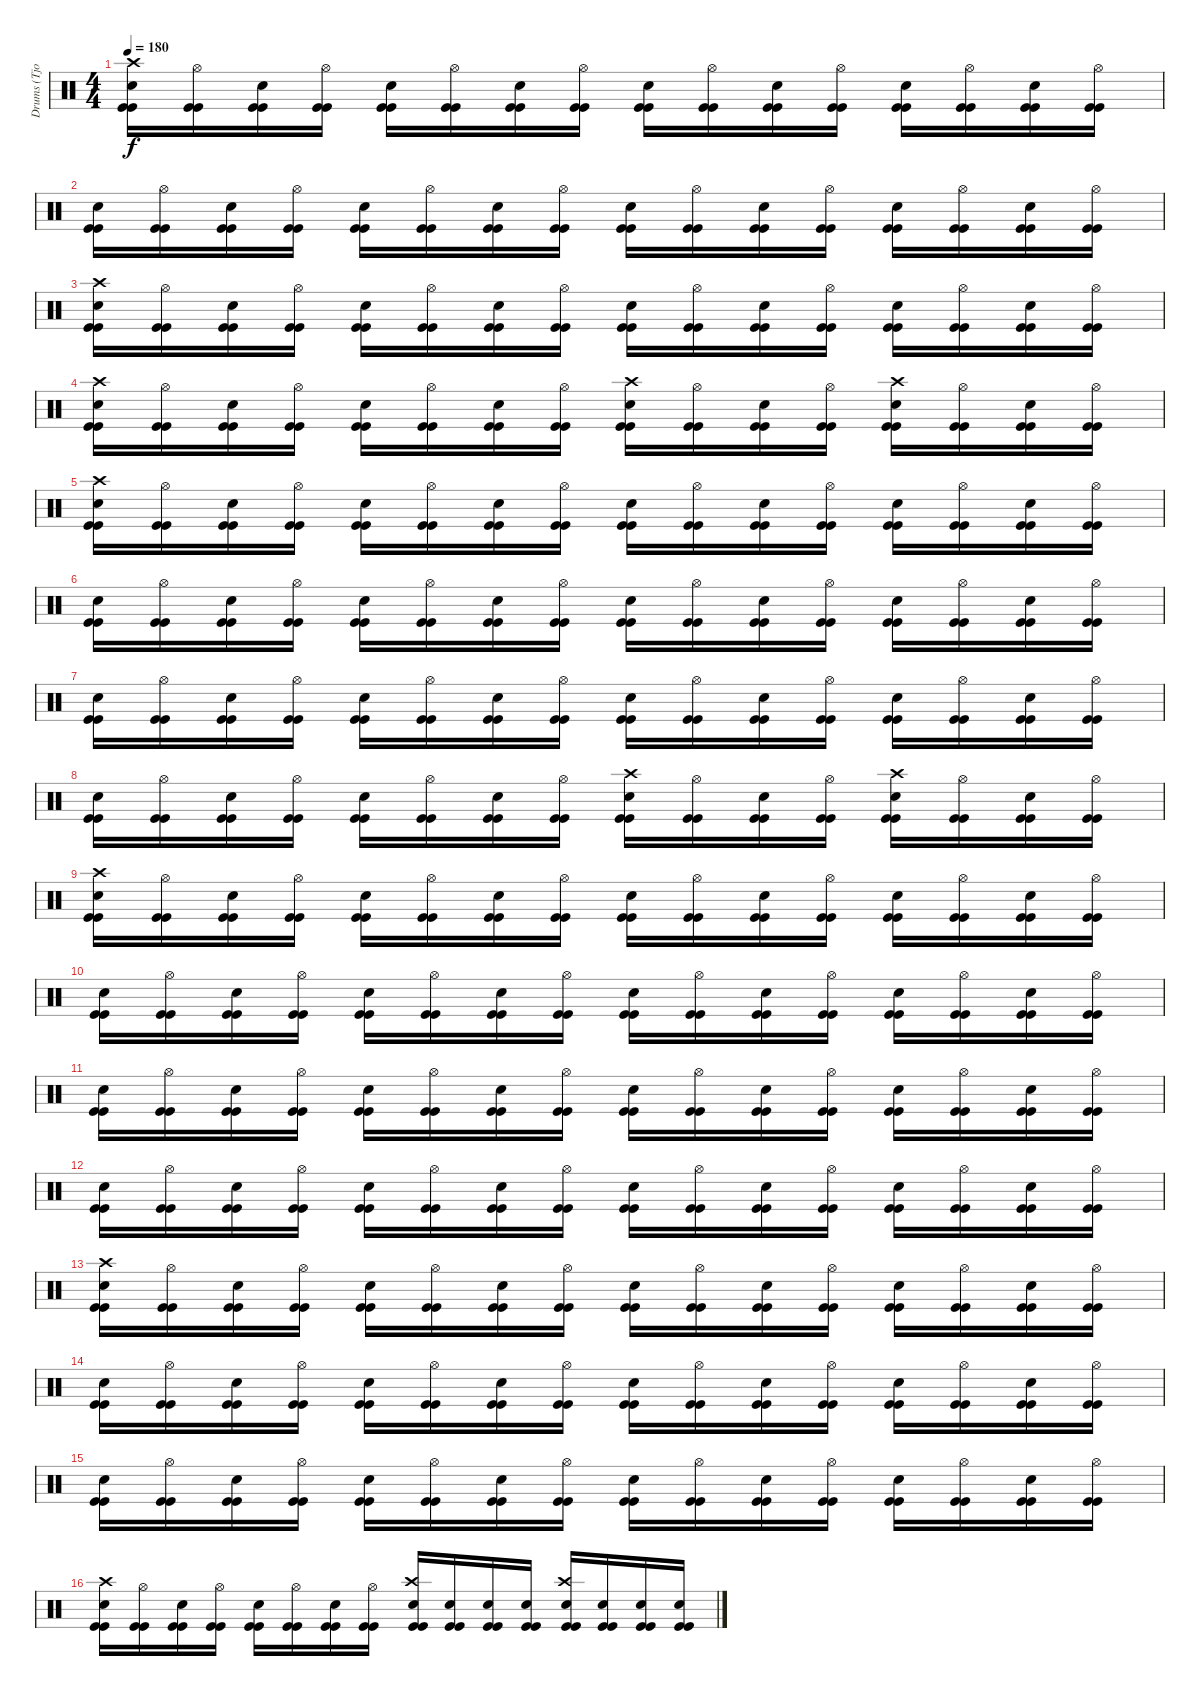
\track ("Drums (Tjodalv)" "Drums (Tjo") {instrument percussion}
\staff {score}
\articulation defaults
\ts (4 4)
\tempo 180
\clef neutral
\ks c
("Snare (hit) 2" "Crash high (hit)" "Kick (hit)" "Kick (hit)").16{dy f} ("Hi-Hat (open)" "Kick (hit)" "Kick (hit)").16 ("Snare (hit) 2" "Kick (hit)" "Kick (hit)").16 ("Hi-Hat (open)" "Kick (hit)" "Kick (hit)").16 ("Snare (hit) 2" "Kick (hit)" "Kick (hit)").16 ("Hi-Hat (open)" "Kick (hit)" "Kick (hit)").16 ("Snare (hit) 2" "Kick (hit)" "Kick (hit)").16 ("Hi-Hat (open)" "Kick (hit)" "Kick (hit)").16 ("Snare (hit) 2" "Kick (hit)" "Kick (hit)").16 ("Hi-Hat (open)" "Kick (hit)" "Kick (hit)").16 ("Snare (hit) 2" "Kick (hit)" "Kick (hit)").16 ("Hi-Hat (open)" "Kick (hit)" "Kick (hit)").16 ("Snare (hit) 2" "Kick (hit)" "Kick (hit)").16 ("Hi-Hat (open)" "Kick (hit)" "Kick (hit)").16 ("Snare (hit) 2" "Kick (hit)" "Kick (hit)").16 ("Hi-Hat (open)" "Kick (hit)" "Kick (hit)").16 |
("Snare (hit) 2" "Kick (hit)" "Kick (hit)").16 ("Hi-Hat (open)" "Kick (hit)" "Kick (hit)").16 ("Snare (hit) 2" "Kick (hit)" "Kick (hit)").16 ("Hi-Hat (open)" "Kick (hit)" "Kick (hit)").16 ("Snare (hit) 2" "Kick (hit)" "Kick (hit)").16 ("Hi-Hat (open)" "Kick (hit)" "Kick (hit)").16 ("Snare (hit) 2" "Kick (hit)" "Kick (hit)").16 ("Hi-Hat (open)" "Kick (hit)" "Kick (hit)").16 ("Snare (hit) 2" "Kick (hit)" "Kick (hit)").16 ("Hi-Hat (open)" "Kick (hit)" "Kick (hit)").16 ("Snare (hit) 2" "Kick (hit)" "Kick (hit)").16 ("Hi-Hat (open)" "Kick (hit)" "Kick (hit)").16 ("Snare (hit) 2" "Kick (hit)" "Kick (hit)").16 ("Hi-Hat (open)" "Kick (hit)" "Kick (hit)").16 ("Snare (hit) 2" "Kick (hit)" "Kick (hit)").16 ("Hi-Hat (open)" "Kick (hit)" "Kick (hit)").16 |
("Snare (hit) 2" "Crash high (hit)" "Kick (hit)" "Kick (hit)").16 ("Hi-Hat (open)" "Kick (hit)" "Kick (hit)").16 ("Snare (hit) 2" "Kick (hit)" "Kick (hit)").16 ("Hi-Hat (open)" "Kick (hit)" "Kick (hit)").16 ("Snare (hit) 2" "Kick (hit)" "Kick (hit)").16 ("Hi-Hat (open)" "Kick (hit)" "Kick (hit)").16 ("Snare (hit) 2" "Kick (hit)" "Kick (hit)").16 ("Hi-Hat (open)" "Kick (hit)" "Kick (hit)").16 ("Snare (hit) 2" "Kick (hit)" "Kick (hit)").16 ("Hi-Hat (open)" "Kick (hit)" "Kick (hit)").16 ("Snare (hit) 2" "Kick (hit)" "Kick (hit)").16 ("Hi-Hat (open)" "Kick (hit)" "Kick (hit)").16 ("Snare (hit) 2" "Kick (hit)" "Kick (hit)").16 ("Hi-Hat (open)" "Kick (hit)" "Kick (hit)").16 ("Snare (hit) 2" "Kick (hit)" "Kick (hit)").16 ("Hi-Hat (open)" "Kick (hit)" "Kick (hit)").16 |
("Snare (hit) 2" "Crash high (hit)" "Kick (hit)" "Kick (hit)").16 ("Hi-Hat (open)" "Kick (hit)" "Kick (hit)").16 ("Snare (hit) 2" "Kick (hit)" "Kick (hit)").16 ("Hi-Hat (open)" "Kick (hit)" "Kick (hit)").16 ("Snare (hit) 2" "Kick (hit)" "Kick (hit)").16 ("Hi-Hat (open)" "Kick (hit)" "Kick (hit)").16 ("Snare (hit) 2" "Kick (hit)" "Kick (hit)").16 ("Hi-Hat (open)" "Kick (hit)" "Kick (hit)").16 ("Snare (hit) 2" "Crash high (hit)" "Kick (hit)" "Kick (hit)").16 ("Hi-Hat (open)" "Kick (hit)" "Kick (hit)").16 ("Snare (hit) 2" "Kick (hit)" "Kick (hit)").16 ("Hi-Hat (open)" "Kick (hit)" "Kick (hit)").16 ("Snare (hit) 2" "Crash high (hit)" "Kick (hit)" "Kick (hit)").16 ("Hi-Hat (open)" "Kick (hit)" "Kick (hit)").16 ("Snare (hit) 2" "Kick (hit)" "Kick (hit)").16 ("Hi-Hat (open)" "Kick (hit)" "Kick (hit)").16 |
("Snare (hit) 2" "Crash high (hit)" "Kick (hit)" "Kick (hit)").16 ("Hi-Hat (open)" "Kick (hit)" "Kick (hit)").16 ("Snare (hit) 2" "Kick (hit)" "Kick (hit)").16 ("Hi-Hat (open)" "Kick (hit)" "Kick (hit)").16 ("Snare (hit) 2" "Kick (hit)" "Kick (hit)").16 ("Hi-Hat (open)" "Kick (hit)" "Kick (hit)").16 ("Snare (hit) 2" "Kick (hit)" "Kick (hit)").16 ("Hi-Hat (open)" "Kick (hit)" "Kick (hit)").16 ("Snare (hit) 2" "Kick (hit)" "Kick (hit)").16 ("Hi-Hat (open)" "Kick (hit)" "Kick (hit)").16 ("Snare (hit) 2" "Kick (hit)" "Kick (hit)").16 ("Hi-Hat (open)" "Kick (hit)" "Kick (hit)").16 ("Snare (hit) 2" "Kick (hit)" "Kick (hit)").16 ("Hi-Hat (open)" "Kick (hit)" "Kick (hit)").16 ("Snare (hit) 2" "Kick (hit)" "Kick (hit)").16 ("Hi-Hat (open)" "Kick (hit)" "Kick (hit)").16 |
("Snare (hit) 2" "Kick (hit)" "Kick (hit)").16 ("Hi-Hat (open)" "Kick (hit)" "Kick (hit)").16 ("Snare (hit) 2" "Kick (hit)" "Kick (hit)").16 ("Hi-Hat (open)" "Kick (hit)" "Kick (hit)").16 ("Snare (hit) 2" "Kick (hit)" "Kick (hit)").16 ("Hi-Hat (open)" "Kick (hit)" "Kick (hit)").16 ("Snare (hit) 2" "Kick (hit)" "Kick (hit)").16 ("Hi-Hat (open)" "Kick (hit)" "Kick (hit)").16 ("Snare (hit) 2" "Kick (hit)" "Kick (hit)").16 ("Hi-Hat (open)" "Kick (hit)" "Kick (hit)").16 ("Snare (hit) 2" "Kick (hit)" "Kick (hit)").16 ("Hi-Hat (open)" "Kick (hit)" "Kick (hit)").16 ("Snare (hit) 2" "Kick (hit)" "Kick (hit)").16 ("Hi-Hat (open)" "Kick (hit)" "Kick (hit)").16 ("Snare (hit) 2" "Kick (hit)" "Kick (hit)").16 ("Hi-Hat (open)" "Kick (hit)" "Kick (hit)").16 |
("Snare (hit) 2" "Kick (hit)" "Kick (hit)").16 ("Hi-Hat (open)" "Kick (hit)" "Kick (hit)").16 ("Snare (hit) 2" "Kick (hit)" "Kick (hit)").16 ("Hi-Hat (open)" "Kick (hit)" "Kick (hit)").16 ("Snare (hit) 2" "Kick (hit)" "Kick (hit)").16 ("Hi-Hat (open)" "Kick (hit)" "Kick (hit)").16 ("Snare (hit) 2" "Kick (hit)" "Kick (hit)").16 ("Hi-Hat (open)" "Kick (hit)" "Kick (hit)").16 ("Snare (hit) 2" "Kick (hit)" "Kick (hit)").16 ("Hi-Hat (open)" "Kick (hit)" "Kick (hit)").16 ("Snare (hit) 2" "Kick (hit)" "Kick (hit)").16 ("Hi-Hat (open)" "Kick (hit)" "Kick (hit)").16 ("Snare (hit) 2" "Kick (hit)" "Kick (hit)").16 ("Hi-Hat (open)" "Kick (hit)" "Kick (hit)").16 ("Snare (hit) 2" "Kick (hit)" "Kick (hit)").16 ("Hi-Hat (open)" "Kick (hit)" "Kick (hit)").16 |
("Snare (hit) 2" "Kick (hit)" "Kick (hit)").16 ("Hi-Hat (open)" "Kick (hit)" "Kick (hit)").16 ("Snare (hit) 2" "Kick (hit)" "Kick (hit)").16 ("Hi-Hat (open)" "Kick (hit)" "Kick (hit)").16 ("Snare (hit) 2" "Kick (hit)" "Kick (hit)").16 ("Hi-Hat (open)" "Kick (hit)" "Kick (hit)").16 ("Snare (hit) 2" "Kick (hit)" "Kick (hit)").16 ("Hi-Hat (open)" "Kick (hit)" "Kick (hit)").16 ("Snare (hit) 2" "Crash high (hit)" "Kick (hit)" "Kick (hit)").16 ("Hi-Hat (open)" "Kick (hit)" "Kick (hit)").16 ("Snare (hit) 2" "Kick (hit)" "Kick (hit)").16 ("Hi-Hat (open)" "Kick (hit)" "Kick (hit)").16 ("Snare (hit) 2" "Crash high (hit)" "Kick (hit)" "Kick (hit)").16 ("Hi-Hat (open)" "Kick (hit)" "Kick (hit)").16 ("Snare (hit) 2" "Kick (hit)" "Kick (hit)").16 ("Hi-Hat (open)" "Kick (hit)" "Kick (hit)").16 |
("Snare (hit) 2" "Crash high (hit)" "Kick (hit)" "Kick (hit)").16 ("Hi-Hat (open)" "Kick (hit)" "Kick (hit)").16 ("Snare (hit) 2" "Kick (hit)" "Kick (hit)").16 ("Hi-Hat (open)" "Kick (hit)" "Kick (hit)").16 ("Snare (hit) 2" "Kick (hit)" "Kick (hit)").16 ("Hi-Hat (open)" "Kick (hit)" "Kick (hit)").16 ("Snare (hit) 2" "Kick (hit)" "Kick (hit)").16 ("Hi-Hat (open)" "Kick (hit)" "Kick (hit)").16 ("Snare (hit) 2" "Kick (hit)" "Kick (hit)").16 ("Hi-Hat (open)" "Kick (hit)" "Kick (hit)").16 ("Snare (hit) 2" "Kick (hit)" "Kick (hit)").16 ("Hi-Hat (open)" "Kick (hit)" "Kick (hit)").16 ("Snare (hit) 2" "Kick (hit)" "Kick (hit)").16 ("Hi-Hat (open)" "Kick (hit)" "Kick (hit)").16 ("Snare (hit) 2" "Kick (hit)" "Kick (hit)").16 ("Hi-Hat (open)" "Kick (hit)" "Kick (hit)").16 |
("Snare (hit) 2" "Kick (hit)" "Kick (hit)").16 ("Hi-Hat (open)" "Kick (hit)" "Kick (hit)").16 ("Snare (hit) 2" "Kick (hit)" "Kick (hit)").16 ("Hi-Hat (open)" "Kick (hit)" "Kick (hit)").16 ("Snare (hit) 2" "Kick (hit)" "Kick (hit)").16 ("Hi-Hat (open)" "Kick (hit)" "Kick (hit)").16 ("Snare (hit) 2" "Kick (hit)" "Kick (hit)").16 ("Hi-Hat (open)" "Kick (hit)" "Kick (hit)").16 ("Snare (hit) 2" "Kick (hit)" "Kick (hit)").16 ("Hi-Hat (open)" "Kick (hit)" "Kick (hit)").16 ("Snare (hit) 2" "Kick (hit)" "Kick (hit)").16 ("Hi-Hat (open)" "Kick (hit)" "Kick (hit)").16 ("Snare (hit) 2" "Kick (hit)" "Kick (hit)").16 ("Hi-Hat (open)" "Kick (hit)" "Kick (hit)").16 ("Snare (hit) 2" "Kick (hit)" "Kick (hit)").16 ("Hi-Hat (open)" "Kick (hit)" "Kick (hit)").16 |
("Snare (hit) 2" "Kick (hit)" "Kick (hit)").16 ("Hi-Hat (open)" "Kick (hit)" "Kick (hit)").16 ("Snare (hit) 2" "Kick (hit)" "Kick (hit)").16 ("Hi-Hat (open)" "Kick (hit)" "Kick (hit)").16 ("Snare (hit) 2" "Kick (hit)" "Kick (hit)").16 ("Hi-Hat (open)" "Kick (hit)" "Kick (hit)").16 ("Snare (hit) 2" "Kick (hit)" "Kick (hit)").16 ("Hi-Hat (open)" "Kick (hit)" "Kick (hit)").16 ("Snare (hit) 2" "Kick (hit)" "Kick (hit)").16 ("Hi-Hat (open)" "Kick (hit)" "Kick (hit)").16 ("Snare (hit) 2" "Kick (hit)" "Kick (hit)").16 ("Hi-Hat (open)" "Kick (hit)" "Kick (hit)").16 ("Snare (hit) 2" "Kick (hit)" "Kick (hit)").16 ("Hi-Hat (open)" "Kick (hit)" "Kick (hit)").16 ("Snare (hit) 2" "Kick (hit)" "Kick (hit)").16 ("Hi-Hat (open)" "Kick (hit)" "Kick (hit)").16 |
("Snare (hit) 2" "Kick (hit)" "Kick (hit)").16 ("Hi-Hat (open)" "Kick (hit)" "Kick (hit)").16 ("Snare (hit) 2" "Kick (hit)" "Kick (hit)").16 ("Hi-Hat (open)" "Kick (hit)" "Kick (hit)").16 ("Snare (hit) 2" "Kick (hit)" "Kick (hit)").16 ("Hi-Hat (open)" "Kick (hit)" "Kick (hit)").16 ("Snare (hit) 2" "Kick (hit)" "Kick (hit)").16 ("Hi-Hat (open)" "Kick (hit)" "Kick (hit)").16 ("Snare (hit) 2" "Kick (hit)" "Kick (hit)").16 ("Hi-Hat (open)" "Kick (hit)" "Kick (hit)").16 ("Snare (hit) 2" "Kick (hit)" "Kick (hit)").16 ("Hi-Hat (open)" "Kick (hit)" "Kick (hit)").16 ("Snare (hit) 2" "Kick (hit)" "Kick (hit)").16 ("Hi-Hat (open)" "Kick (hit)" "Kick (hit)").16 ("Snare (hit) 2" "Kick (hit)" "Kick (hit)").16 ("Hi-Hat (open)" "Kick (hit)" "Kick (hit)").16 |
("Snare (hit) 2" "Crash high (hit)" "Kick (hit)" "Kick (hit)").16 ("Hi-Hat (open)" "Kick (hit)" "Kick (hit)").16 ("Snare (hit) 2" "Kick (hit)" "Kick (hit)").16 ("Hi-Hat (open)" "Kick (hit)" "Kick (hit)").16 ("Snare (hit) 2" "Kick (hit)" "Kick (hit)").16 ("Hi-Hat (open)" "Kick (hit)" "Kick (hit)").16 ("Snare (hit) 2" "Kick (hit)" "Kick (hit)").16 ("Hi-Hat (open)" "Kick (hit)" "Kick (hit)").16 ("Snare (hit) 2" "Kick (hit)" "Kick (hit)").16 ("Hi-Hat (open)" "Kick (hit)" "Kick (hit)").16 ("Snare (hit) 2" "Kick (hit)" "Kick (hit)").16 ("Hi-Hat (open)" "Kick (hit)" "Kick (hit)").16 ("Snare (hit) 2" "Kick (hit)" "Kick (hit)").16 ("Hi-Hat (open)" "Kick (hit)" "Kick (hit)").16 ("Snare (hit) 2" "Kick (hit)" "Kick (hit)").16 ("Hi-Hat (open)" "Kick (hit)" "Kick (hit)").16 |
("Snare (hit) 2" "Kick (hit)" "Kick (hit)").16 ("Hi-Hat (open)" "Kick (hit)" "Kick (hit)").16 ("Snare (hit) 2" "Kick (hit)" "Kick (hit)").16 ("Hi-Hat (open)" "Kick (hit)" "Kick (hit)").16 ("Snare (hit) 2" "Kick (hit)" "Kick (hit)").16 ("Hi-Hat (open)" "Kick (hit)" "Kick (hit)").16 ("Snare (hit) 2" "Kick (hit)" "Kick (hit)").16 ("Hi-Hat (open)" "Kick (hit)" "Kick (hit)").16 ("Snare (hit) 2" "Kick (hit)" "Kick (hit)").16 ("Hi-Hat (open)" "Kick (hit)" "Kick (hit)").16 ("Snare (hit) 2" "Kick (hit)" "Kick (hit)").16 ("Hi-Hat (open)" "Kick (hit)" "Kick (hit)").16 ("Snare (hit) 2" "Kick (hit)" "Kick (hit)").16 ("Hi-Hat (open)" "Kick (hit)" "Kick (hit)").16 ("Snare (hit) 2" "Kick (hit)" "Kick (hit)").16 ("Hi-Hat (open)" "Kick (hit)" "Kick (hit)").16 |
("Snare (hit) 2" "Kick (hit)" "Kick (hit)").16 ("Hi-Hat (open)" "Kick (hit)" "Kick (hit)").16 ("Snare (hit) 2" "Kick (hit)" "Kick (hit)").16 ("Hi-Hat (open)" "Kick (hit)" "Kick (hit)").16 ("Snare (hit) 2" "Kick (hit)" "Kick (hit)").16 ("Hi-Hat (open)" "Kick (hit)" "Kick (hit)").16 ("Snare (hit) 2" "Kick (hit)" "Kick (hit)").16 ("Hi-Hat (open)" "Kick (hit)" "Kick (hit)").16 ("Snare (hit) 2" "Kick (hit)" "Kick (hit)").16 ("Hi-Hat (open)" "Kick (hit)" "Kick (hit)").16 ("Snare (hit) 2" "Kick (hit)" "Kick (hit)").16 ("Hi-Hat (open)" "Kick (hit)" "Kick (hit)").16 ("Snare (hit) 2" "Kick (hit)" "Kick (hit)").16 ("Hi-Hat (open)" "Kick (hit)" "Kick (hit)").16 ("Snare (hit) 2" "Kick (hit)" "Kick (hit)").16 ("Hi-Hat (open)" "Kick (hit)" "Kick (hit)").16 |
("Snare (hit) 2" "Crash high (hit)" "Kick (hit)" "Kick (hit)").16 ("Hi-Hat (open)" "Kick (hit)" "Kick (hit)").16 ("Snare (hit) 2" "Kick (hit)" "Kick (hit)").16 ("Hi-Hat (open)" "Kick (hit)" "Kick (hit)").16 ("Snare (hit) 2" "Kick (hit)" "Kick (hit)").16 ("Hi-Hat (open)" "Kick (hit)" "Kick (hit)").16 ("Snare (hit) 2" "Kick (hit)" "Kick (hit)").16 ("Hi-Hat (open)" "Kick (hit)" "Kick (hit)").16 ("Snare (hit) 2" "Crash high (hit)" "Kick (hit)" "Kick (hit)").16 ("Snare (hit) 2" "Kick (hit)" "Kick (hit)").16 ("Snare (hit) 2" "Kick (hit)" "Kick (hit)").16 ("Snare (hit) 2" "Kick (hit)" "Kick (hit)").16 ("Snare (hit) 2" "Crash high (hit)" "Kick (hit)" "Kick (hit)").16 ("Snare (hit) 2" "Kick (hit)" "Kick (hit)").16 ("Snare (hit) 2" "Kick (hit)" "Kick (hit)").16 ("Snare (hit) 2" "Kick (hit)" "Kick (hit)").16
